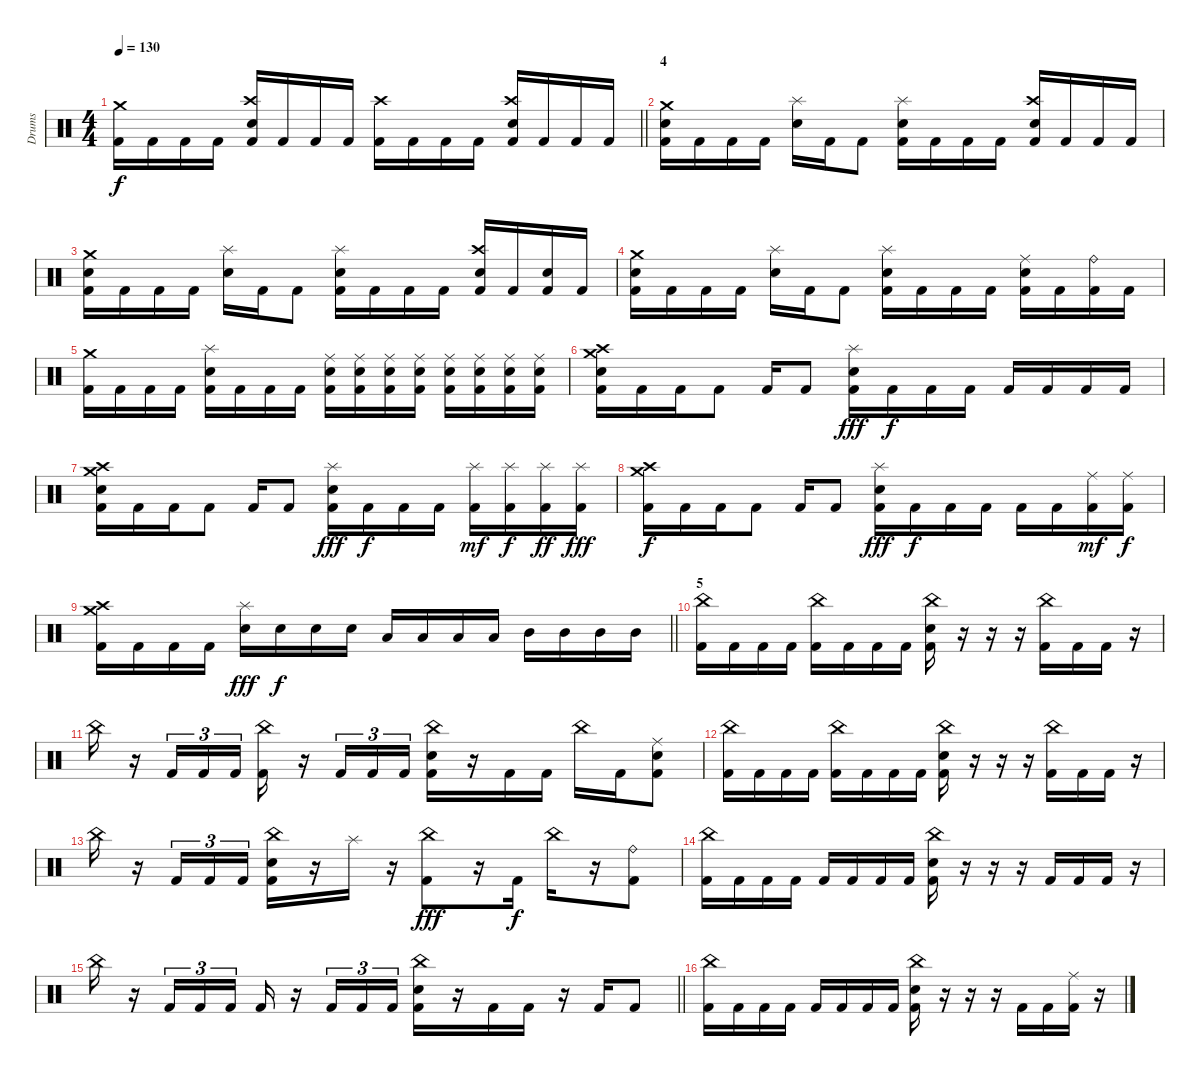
\track ("Drums" "Drums") {instrument percussion}
\staff {score}
\articulation defaults
\ts (4 4)
\tempo 130
\clef neutral
\barLineRight lightlight
\ks c
("Crash medium (hit)" "Kick (hit) 2").16{dy f} "Kick (hit) 2".16 "Kick (hit) 2".16 "Kick (hit) 2".16 ("Crash high (hit)" "Electric Snare (hit)" "Kick (hit) 2").16 "Kick (hit) 2".16 "Kick (hit) 2".16 "Kick (hit) 2".16 ("Crash high (hit)" "Kick (hit) 2").16 "Kick (hit) 2".16 "Kick (hit) 2".16 "Kick (hit) 2".16 ("Crash high (hit)" "Electric Snare (hit)" "Kick (hit) 2").16 "Kick (hit) 2".16 "Kick (hit) 2".16 "Kick (hit) 2".16 |
\section ("" "4")
("Crash medium (hit)" "Electric Snare (hit)" "Kick (hit) 2").16 "Kick (hit) 2".16 "Kick (hit) 2".16 "Kick (hit) 2".16 ("Splash (hit)" "Electric Snare (hit)").16 "Kick (hit) 2".16 "Kick (hit) 2".8 ("Splash (hit)" "Electric Snare (hit)" "Kick (hit) 2").16 "Kick (hit) 2".16 "Kick (hit) 2".16 "Kick (hit) 2".16 ("Crash high (hit)" "Electric Snare (hit)" "Kick (hit) 2").16 "Kick (hit) 2".16 "Kick (hit) 2".16 "Kick (hit) 2".16 |
("Crash medium (hit)" "Electric Snare (hit)" "Kick (hit) 2").16 "Kick (hit) 2".16 "Kick (hit) 2".16 "Kick (hit) 2".16 ("Splash (hit)" "Electric Snare (hit)").16 "Kick (hit) 2".16 "Kick (hit) 2".8 ("Splash (hit)" "Electric Snare (hit)" "Kick (hit) 2").16 "Kick (hit) 2".16 "Kick (hit) 2".16 "Kick (hit) 2".16 ("Crash high (hit)" "Electric Snare (hit)" "Kick (hit) 2").16 "Kick (hit) 2".16 ("Electric Snare (hit)" "Kick (hit) 2").16 "Kick (hit) 2".16 |
("Crash medium (hit)" "Electric Snare (hit)" "Kick (hit) 2").16 "Kick (hit) 2".16 "Kick (hit) 2".16 "Kick (hit) 2".16 ("Splash (hit)" "Electric Snare (hit)").16 "Kick (hit) 2".16 "Kick (hit) 2".8 ("Splash (hit)" "Electric Snare (hit)" "Kick (hit) 2").16 "Kick (hit) 2".16 "Kick (hit) 2".16 "Kick (hit) 2".16 ("Ride (middle)" "Electric Snare (hit)" "Kick (hit) 2").16 "Kick (hit) 2".16 ("Ride (bell)" "Kick (hit) 2").16 "Kick (hit) 2".16 |
("Crash medium (hit)" "Kick (hit) 2").16 "Kick (hit) 2".16 "Kick (hit) 2".16 "Kick (hit) 2".16 ("Splash (hit)" "Electric Snare (hit)" "Kick (hit) 2").16 "Kick (hit) 2".16 "Kick (hit) 2".16 "Kick (hit) 2".16 ("Ride (middle)" "Electric Snare (hit)" "Kick (hit) 2").16 ("Ride (middle)" "Electric Snare (hit)" "Kick (hit) 2").16 ("Ride (middle)" "Electric Snare (hit)" "Kick (hit) 2").16 ("Ride (middle)" "Electric Snare (hit)" "Kick (hit) 2").16 ("Ride (middle)" "Electric Snare (hit)" "Kick (hit) 2").16 ("Ride (middle)" "Electric Snare (hit)" "Kick (hit) 2").16 ("Ride (middle)" "Electric Snare (hit)" "Kick (hit) 2").16 ("Ride (middle)" "Electric Snare (hit)" "Kick (hit) 2").16 |
("Crash medium (hit)" "Crash high (hit)" "Electric Snare (hit)" "Kick (hit) 2").16 "Kick (hit) 2".16 "Kick (hit) 2".16 "Kick (hit) 2".8 "Kick (hit) 2".16 "Kick (hit) 2".8 ("Splash (hit)" "Electric Snare (hit)" "Kick (hit) 2").16{dy fff} "Kick (hit) 2".16{dy f} "Kick (hit) 2".16 "Kick (hit) 2".16 "Kick (hit) 2".16 "Kick (hit) 2".16 "Kick (hit) 2".16 "Kick (hit) 2".16 |
("Crash medium (hit)" "Crash high (hit)" "Electric Snare (hit)" "Kick (hit) 2").16 "Kick (hit) 2".16 "Kick (hit) 2".16 "Kick (hit) 2".8 "Kick (hit) 2".16 "Kick (hit) 2".8 ("Splash (hit)" "Electric Snare (hit)" "Kick (hit) 2").16{dy fff} "Kick (hit) 2".16{dy f} "Kick (hit) 2".16 "Kick (hit) 2".16 ("Splash (hit)" "Kick (hit) 2").16{dy mf} ("Splash (hit)" "Kick (hit) 2").16{dy f} ("Splash (hit)" "Kick (hit) 2").16{dy ff} ("Splash (hit)" "Kick (hit) 2").16{dy fff} |
("Crash medium (hit)" "Crash high (hit)" "Kick (hit) 2").16{dy f} "Kick (hit) 2".16 "Kick (hit) 2".16 "Kick (hit) 2".8 "Kick (hit) 2".16 "Kick (hit) 2".8 ("Splash (hit)" "Electric Snare (hit)" "Kick (hit) 2").16{dy fff} "Kick (hit) 2".16{dy f} "Kick (hit) 2".16 "Kick (hit) 2".16 "Kick (hit) 2".16 "Kick (hit) 2".16 ("Ride (middle)" "Kick (hit) 2").16{dy mf} ("Ride (middle)" "Kick (hit) 2").16{dy f} |
\barLineRight lightlight
("Crash medium (hit)" "Crash high (hit)" "Kick (hit) 2").16 "Kick (hit) 2".16 "Kick (hit) 2".16 "Kick (hit) 2".16 ("Splash (hit)" "Electric Snare (hit)").16{dy fff} "Electric Snare (hit)".16{dy f} "Electric Snare (hit)".16 "Electric Snare (hit)".16 "Low Tom (hit)".16 "Low Tom (hit)".16 "Low Tom (hit)".16 "Low Tom (hit)".16 "Mid Tom (hit)".16 "Mid Tom (hit)".16 "Mid Tom (hit)".16 "Mid Tom (hit)".16 |
\section ("" "5")
("China (hit)" "Kick (hit) 2").16 "Kick (hit) 2".16 "Kick (hit) 2".16 "Kick (hit) 2".16 ("China (hit)" "Kick (hit) 2").16 "Kick (hit) 2".16 "Kick (hit) 2".16 "Kick (hit) 2".16 ("China (hit)" "Electric Snare (hit)" "Kick (hit) 2").16 r.16 r.16 r.16 ("China (hit)" "Kick (hit) 2").16 "Kick (hit) 2".16 "Kick (hit) 2".16 r.16 |
"China (hit)".16 r.16 "Kick (hit) 2".16{tu (3 2)} "Kick (hit) 2".16{tu (3 2)} "Kick (hit) 2".16{tu (3 2)} ("China (hit)" "Kick (hit) 2").16 r.16 "Kick (hit) 2".16{tu (3 2)} "Kick (hit) 2".16{tu (3 2)} "Kick (hit) 2".16{tu (3 2)} ("China (hit)" "Electric Snare (hit)" "Kick (hit) 2").16 r.16 "Kick (hit) 2".16 "Kick (hit) 2".16 "China (hit)".16 "Kick (hit) 2".16 ("Ride (middle)" "Electric Snare (hit)" "Kick (hit) 2").8 |
("China (hit)" "Kick (hit) 2").16 "Kick (hit) 2".16 "Kick (hit) 2".16 "Kick (hit) 2".16 ("China (hit)" "Kick (hit) 2").16 "Kick (hit) 2".16 "Kick (hit) 2".16 "Kick (hit) 2".16 ("China (hit)" "Electric Snare (hit)" "Kick (hit) 2").16 r.16 r.16 r.16 ("China (hit)" "Kick (hit) 2").16 "Kick (hit) 2".16 "Kick (hit) 2".16 r.16 |
"China (hit)".16 r.16 "Kick (hit) 2".16{tu (3 2)} "Kick (hit) 2".16{tu (3 2)} "Kick (hit) 2".16{tu (3 2)} ("China (hit)" "Electric Snare (hit)" "Kick (hit) 2").16 r.16 "Splash (hit)".16 r.16 ("China (hit)" "Kick (hit) 2").8{dy fff} r.16 "Kick (hit) 2".16{dy f} "China (hit)".16 r.16 ("Ride (bell)" "Kick (hit) 2").8 |
("China (hit)" "Kick (hit) 2").16 "Kick (hit) 2".16 "Kick (hit) 2".16 "Kick (hit) 2".16 "Kick (hit) 2".16 "Kick (hit) 2".16 "Kick (hit) 2".16 "Kick (hit) 2".16 ("China (hit)" "Electric Snare (hit)" "Kick (hit) 2").16 r.16 r.16 r.16 "Kick (hit) 2".16 "Kick (hit) 2".16 "Kick (hit) 2".16 r.16 |
\barLineRight lightlight "China (hit)".16
r.16 "Kick (hit) 2".16{tu (3 2)} "Kick (hit) 2".16{tu (3 2)} "Kick (hit) 2".16{tu (3 2)} "Kick (hit) 2".16 r.16 "Kick (hit) 2".16{tu (3 2)} "Kick (hit) 2".16{tu (3 2)} "Kick (hit) 2".16{tu (3 2)} ("China (hit)" "Electric Snare (hit)" "Kick (hit) 2").16 r.16 "Kick (hit) 2".16 "Kick (hit) 2".16 r.16 "Kick (hit) 2".16 "Kick (hit) 2".8 |
("China (hit)" "Kick (hit) 2").16 "Kick (hit) 2".16 "Kick (hit) 2".16 "Kick (hit) 2".16 "Kick (hit) 2".16 "Kick (hit) 2".16 "Kick (hit) 2".16 "Kick (hit) 2".16 ("China (hit)" "Electric Snare (hit)" "Kick (hit) 2").16 r.16 r.16 r.16 "Kick (hit) 2".16 "Kick (hit) 2".16 ("Ride (middle)" "Kick (hit) 2").16 r.16
